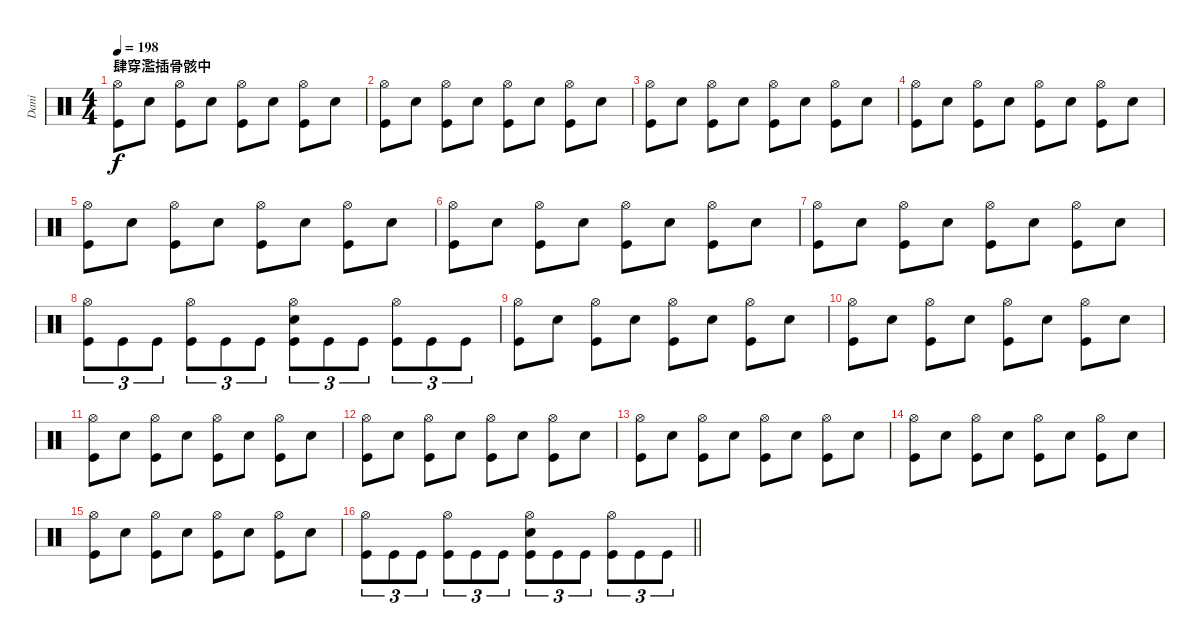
\track ("Dani" "Dani") {instrument percussion}
\staff {score}
\articulation defaults
\ts (4 4)
\section ("" "肆穿濫插骨骸中")
\tempo 198
\clef neutral
\ks c
("Hi-Hat (open)" "Kick (hit)").8{dy f} "Snare (hit) 2".8 ("Hi-Hat (open)" "Kick (hit)").8 "Snare (hit) 2".8 ("Hi-Hat (open)" "Kick (hit)").8 "Snare (hit) 2".8 ("Hi-Hat (open)" "Kick (hit)").8 "Snare (hit) 2".8 |
("Hi-Hat (open)" "Kick (hit)").8 "Snare (hit) 2".8 ("Hi-Hat (open)" "Kick (hit)").8 "Snare (hit) 2".8 ("Hi-Hat (open)" "Kick (hit)").8 "Snare (hit) 2".8 ("Hi-Hat (open)" "Kick (hit)").8 "Snare (hit) 2".8 |
("Hi-Hat (open)" "Kick (hit)").8 "Snare (hit) 2".8 ("Hi-Hat (open)" "Kick (hit)").8 "Snare (hit) 2".8 ("Hi-Hat (open)" "Kick (hit)").8 "Snare (hit) 2".8 ("Hi-Hat (open)" "Kick (hit)").8 "Snare (hit) 2".8 |
("Hi-Hat (open)" "Kick (hit)").8 "Snare (hit) 2".8 ("Hi-Hat (open)" "Kick (hit)").8 "Snare (hit) 2".8 ("Hi-Hat (open)" "Kick (hit)").8 "Snare (hit) 2".8 ("Hi-Hat (open)" "Kick (hit)").8 "Snare (hit) 2".8 |
("Hi-Hat (open)" "Kick (hit)").8 "Snare (hit) 2".8 ("Hi-Hat (open)" "Kick (hit)").8 "Snare (hit) 2".8 ("Hi-Hat (open)" "Kick (hit)").8 "Snare (hit) 2".8 ("Hi-Hat (open)" "Kick (hit)").8 "Snare (hit) 2".8 |
("Hi-Hat (open)" "Kick (hit)").8 "Snare (hit) 2".8 ("Hi-Hat (open)" "Kick (hit)").8 "Snare (hit) 2".8 ("Hi-Hat (open)" "Kick (hit)").8 "Snare (hit) 2".8 ("Hi-Hat (open)" "Kick (hit)").8 "Snare (hit) 2".8 |
("Hi-Hat (open)" "Kick (hit)").8 "Snare (hit) 2".8 ("Hi-Hat (open)" "Kick (hit)").8 "Snare (hit) 2".8 ("Hi-Hat (open)" "Kick (hit)").8 "Snare (hit) 2".8 ("Hi-Hat (open)" "Kick (hit)").8 "Snare (hit) 2".8 |
("Hi-Hat (open)" "Kick (hit)").8{tu (3 2)} "Kick (hit)".8{tu (3 2)} "Kick (hit)".8{tu (3 2)} ("Hi-Hat (open)" "Kick (hit)").8{tu (3 2)} "Kick (hit)".8{tu (3 2)} "Kick (hit)".8{tu (3 2)} ("Hi-Hat (open)" "Kick (hit)" "Snare (hit) 2").8{tu (3 2)} "Kick (hit)".8{tu (3 2)} "Kick (hit)".8{tu (3 2)} ("Hi-Hat (open)" "Kick (hit)").8{tu (3 2)} "Kick (hit)".8{tu (3 2)} "Kick (hit)".8{tu (3 2)} |
("Hi-Hat (open)" "Kick (hit)").8 "Snare (hit) 2".8 ("Hi-Hat (open)" "Kick (hit)").8 "Snare (hit) 2".8 ("Hi-Hat (open)" "Kick (hit)").8 "Snare (hit) 2".8 ("Hi-Hat (open)" "Kick (hit)").8 "Snare (hit) 2".8 |
("Hi-Hat (open)" "Kick (hit)").8 "Snare (hit) 2".8 ("Hi-Hat (open)" "Kick (hit)").8 "Snare (hit) 2".8 ("Hi-Hat (open)" "Kick (hit)").8 "Snare (hit) 2".8 ("Hi-Hat (open)" "Kick (hit)").8 "Snare (hit) 2".8 |
("Hi-Hat (open)" "Kick (hit)").8 "Snare (hit) 2".8 ("Hi-Hat (open)" "Kick (hit)").8 "Snare (hit) 2".8 ("Hi-Hat (open)" "Kick (hit)").8 "Snare (hit) 2".8 ("Hi-Hat (open)" "Kick (hit)").8 "Snare (hit) 2".8 |
("Hi-Hat (open)" "Kick (hit)").8 "Snare (hit) 2".8 ("Hi-Hat (open)" "Kick (hit)").8 "Snare (hit) 2".8 ("Hi-Hat (open)" "Kick (hit)").8 "Snare (hit) 2".8 ("Hi-Hat (open)" "Kick (hit)").8 "Snare (hit) 2".8 |
("Hi-Hat (open)" "Kick (hit)").8 "Snare (hit) 2".8 ("Hi-Hat (open)" "Kick (hit)").8 "Snare (hit) 2".8 ("Hi-Hat (open)" "Kick (hit)").8 "Snare (hit) 2".8 ("Hi-Hat (open)" "Kick (hit)").8 "Snare (hit) 2".8 |
("Hi-Hat (open)" "Kick (hit)").8 "Snare (hit) 2".8 ("Hi-Hat (open)" "Kick (hit)").8 "Snare (hit) 2".8 ("Hi-Hat (open)" "Kick (hit)").8 "Snare (hit) 2".8 ("Hi-Hat (open)" "Kick (hit)").8 "Snare (hit) 2".8 |
("Hi-Hat (open)" "Kick (hit)").8 "Snare (hit) 2".8 ("Hi-Hat (open)" "Kick (hit)").8 "Snare (hit) 2".8 ("Hi-Hat (open)" "Kick (hit)").8 "Snare (hit) 2".8 ("Hi-Hat (open)" "Kick (hit)").8 "Snare (hit) 2".8 |
\barLineRight lightlight
("Hi-Hat (open)" "Kick (hit)").8{tu (3 2)} "Kick (hit)".8{tu (3 2)} "Kick (hit)".8{tu (3 2)} ("Hi-Hat (open)" "Kick (hit)").8{tu (3 2)} "Kick (hit)".8{tu (3 2)} "Kick (hit)".8{tu (3 2)} ("Hi-Hat (open)" "Kick (hit)" "Snare (hit) 2").8{tu (3 2)} "Kick (hit)".8{tu (3 2)} "Kick (hit)".8{tu (3 2)} ("Hi-Hat (open)" "Kick (hit)").8{tu (3 2)} "Kick (hit)".8{tu (3 2)} "Kick (hit)".8{tu (3 2)}
